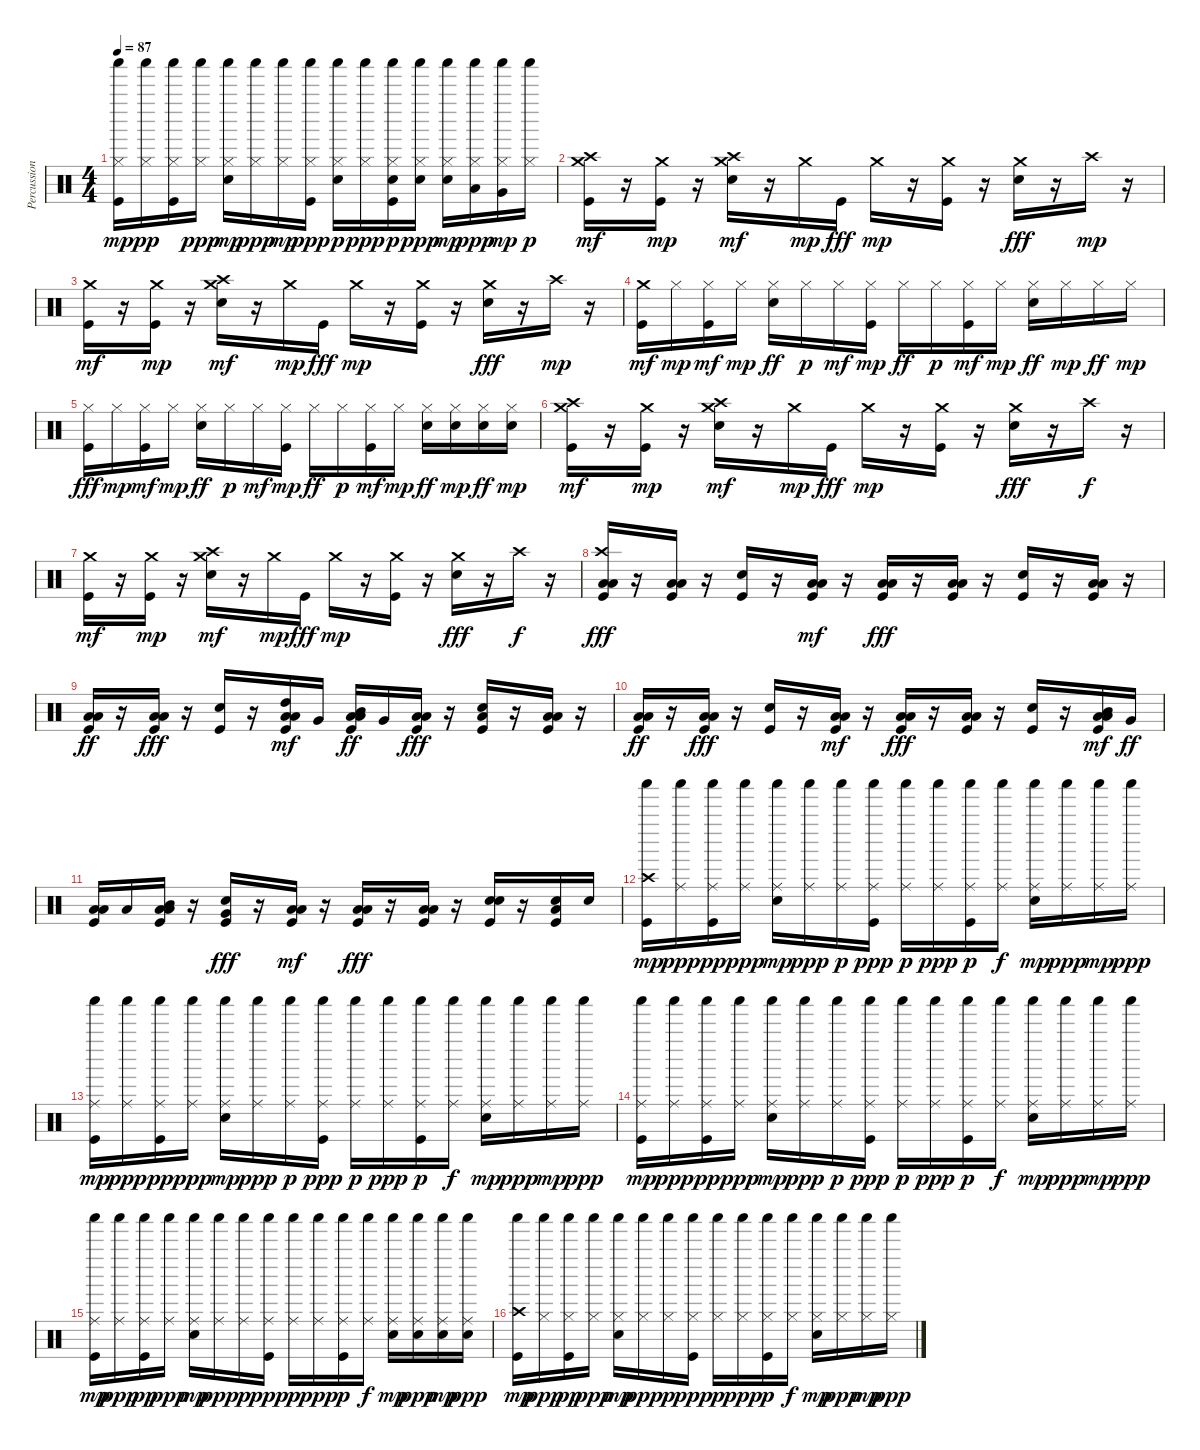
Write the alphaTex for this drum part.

\track ("Percussioni" "Percussion") {instrument percussion}
\staff {score}
\articulation defaults
\ts (4 4)
\tempo 87
\clef neutral
\ks c
("Kick (hit)" "Hi-Hat (closed)" "Shaker (hit)").16{dy mp} ("Hi-Hat (closed)" "Shaker (hit)").16{dy pp} ("Kick (hit)" "Hi-Hat (closed)" "Shaker (hit)").16 ("Hi-Hat (closed)" "Shaker (hit)").16{dy ppp} ("Electric Snare (hit)" "Hi-Hat (closed)" "Shaker (hit)").16{dy mp} ("Hi-Hat (closed)" "Shaker (hit)").16{dy ppp} ("Hi-Hat (closed)" "Shaker (hit)").16{dy mp} ("Kick (hit)" "Hi-Hat (closed)" "Shaker (hit)").16{dy ppp} ("Electric Snare (hit)" "Hi-Hat (closed)" "Shaker (hit)").16{dy p} ("Hi-Hat (closed)" "Shaker (hit)").16{dy ppp} ("Kick (hit)" "Electric Snare (hit)" "Hi-Hat (closed)" "Shaker (hit)").16{dy p} ("Electric Snare (hit)" "Hi-Hat (closed)" "Shaker (hit)").16{dy ppp} ("Electric Snare (hit)" "Hi-Hat (closed)" "Shaker (hit)").16{dy mp} ("Hi-Hat (closed)" "Low Tom (hit)" "Shaker (hit)").16{dy ppp} ("Hi-Hat (closed)" "Very Low Tom (hit)" "Shaker (hit)").16{dy mp} ("Hi-Hat (closed)" "Shaker (hit)").16{dy p} |
("Kick (hit)" "Crash high (hit)" "Crash medium (hit)").16{dy mf} r.16 ("Kick (hit)" "Crash medium (hit)").16{dy mp} r.16 ("Electric Snare (hit)" "Crash high (hit)" "Crash medium (hit)").16{dy mf} r.16 "Crash medium (hit)".16{dy mp} "Kick (hit)".16{dy fff} "Crash medium (hit)".16{dy mp} r.16 ("Kick (hit)" "Crash medium (hit)").16 r.16 ("Electric Snare (hit)" "Crash medium (hit)").16{dy fff} r.16 "Crash high (hit)".16{dy mp} r.16 |
("Kick (hit)" "Crash medium (hit)").16{dy mf} r.16 ("Kick (hit)" "Crash medium (hit)").16{dy mp} r.16 ("Electric Snare (hit)" "Crash high (hit)" "Crash medium (hit)").16{dy mf} r.16 "Crash medium (hit)".16{dy mp} "Kick (hit)".16{dy fff} "Crash medium (hit)".16{dy mp} r.16 ("Kick (hit)" "Crash medium (hit)").16 r.16 ("Electric Snare (hit)" "Crash medium (hit)").16{dy fff} r.16 "Crash high (hit)".16{dy mp} r.16 |
("Kick (hit)" "Crash medium (hit)").16{dy mf} "Hi-Hat (closed)".16{dy mp} ("Kick (hit)" "Hi-Hat (closed)").16{dy mf} "Hi-Hat (closed)".16{dy mp} ("Electric Snare (hit)" "Hi-Hat (closed)").16{dy ff} "Hi-Hat (closed)".16{dy p} "Hi-Hat (closed)".16{dy mf} ("Kick (hit)" "Hi-Hat (closed)").16{dy mp} "Hi-Hat (closed)".16{dy ff} "Hi-Hat (closed)".16{dy p} ("Kick (hit)" "Hi-Hat (closed)").16{dy mf} "Hi-Hat (closed)".16{dy mp} ("Electric Snare (hit)" "Hi-Hat (closed)").16{dy ff} "Hi-Hat (closed)".16{dy mp} "Hi-Hat (closed)".16{dy ff} "Hi-Hat (closed)".16{dy mp} |
("Kick (hit)" "Hi-Hat (closed)").16{dy fff} "Hi-Hat (closed)".16{dy mp} ("Kick (hit)" "Hi-Hat (closed)").16{dy mf} "Hi-Hat (closed)".16{dy mp} ("Electric Snare (hit)" "Hi-Hat (closed)").16{dy ff} "Hi-Hat (closed)".16{dy p} "Hi-Hat (closed)".16{dy mf} ("Kick (hit)" "Hi-Hat (closed)").16{dy mp} "Hi-Hat (closed)".16{dy ff} "Hi-Hat (closed)".16{dy p} ("Kick (hit)" "Hi-Hat (closed)").16{dy mf} "Hi-Hat (closed)".16{dy mp} ("Electric Snare (hit)" "Hi-Hat (closed)").16{dy ff} ("Electric Snare (hit)" "Hi-Hat (closed)").16{dy mp} ("Electric Snare (hit)" "Hi-Hat (closed)").16{dy ff} ("Electric Snare (hit)" "Hi-Hat (closed)").16{dy mp} |
("Kick (hit)" "Crash high (hit)" "Crash medium (hit)").16{dy mf} r.16 ("Kick (hit)" "Crash medium (hit)").16{dy mp} r.16 ("Electric Snare (hit)" "Crash high (hit)" "Crash medium (hit)").16{dy mf} r.16 "Crash medium (hit)".16{dy mp} "Kick (hit)".16{dy fff} "Crash medium (hit)".16{dy mp} r.16 ("Kick (hit)" "Crash medium (hit)").16 r.16 ("Electric Snare (hit)" "Crash medium (hit)").16{dy fff} r.16 "Crash high (hit)".16{dy f} r.16 |
("Kick (hit)" "Crash medium (hit)").16{dy mf} r.16 ("Kick (hit)" "Crash medium (hit)").16{dy mp} r.16 ("Electric Snare (hit)" "Crash high (hit)" "Crash medium (hit)").16{dy mf} r.16 "Crash medium (hit)".16{dy mp} "Kick (hit)".16{dy fff} "Crash medium (hit)".16{dy mp} r.16 ("Kick (hit)" "Crash medium (hit)").16 r.16 ("Electric Snare (hit)" "Crash medium (hit)").16{dy fff} r.16 "Crash high (hit)".16{dy f} r.16 |
("Kick (hit)" "Low Floor Tom (hit)" "Low Tom (hit)" "Crash high (hit)").16{dy fff} r.16 ("Kick (hit)" "Low Floor Tom (hit)" "Low Tom (hit)").16 r.16 ("Kick (hit)" "Electric Snare (hit)").16 r.16 ("Kick (hit)" "Low Floor Tom (hit)" "Low Tom (hit)").16{dy mf} r.16 ("Kick (hit)" "Low Floor Tom (hit)" "Low Tom (hit)").16{dy fff} r.16 ("Kick (hit)" "Low Floor Tom (hit)" "Low Tom (hit)").16 r.16 ("Kick (hit)" "Electric Snare (hit)").16 r.16 ("Kick (hit)" "Low Floor Tom (hit)" "Low Tom (hit)").16 r.16 |
("Kick (hit)" "Low Floor Tom (hit)" "Low Tom (hit)").16{dy ff} r.16 ("Kick (hit)" "Low Floor Tom (hit)" "Low Tom (hit)").16{dy fff} r.16 ("Kick (hit)" "Electric Snare (hit)").16 r.16 ("Kick (hit)" "Low Floor Tom (hit)" "Low Tom (hit)" "High Tom (hit)").16{dy mf} "Very Low Tom (hit)".16 ("Kick (hit)" "Low Floor Tom (hit)" "Low Tom (hit)" "Mid Tom (hit)").16{dy ff} "Very Low Tom (hit)".16 ("Kick (hit)" "Low Floor Tom (hit)" "Low Tom (hit)").16{dy fff} r.16 ("Kick (hit)" "Electric Snare (hit)" "Low Floor Tom (hit)").16 r.16 ("Kick (hit)" "Low Floor Tom (hit)" "Low Tom (hit)").16 r.16 |
("Kick (hit)" "Low Floor Tom (hit)" "Low Tom (hit)").16{dy ff} r.16 ("Kick (hit)" "Low Floor Tom (hit)" "Low Tom (hit)").16{dy fff} r.16 ("Kick (hit)" "Electric Snare (hit)").16 r.16 ("Kick (hit)" "Low Floor Tom (hit)" "Low Tom (hit)").16{dy mf} r.16 ("Kick (hit)" "Low Floor Tom (hit)" "Low Tom (hit)").16{dy fff} r.16 ("Kick (hit)" "Low Floor Tom (hit)" "Low Tom (hit)").16 r.16 ("Kick (hit)" "Electric Snare (hit)").16 r.16 ("Kick (hit)" "Low Floor Tom (hit)" "Low Tom (hit)" "Mid Tom (hit)").16{dy mf} "Very Low Tom (hit)".16{dy ff} |
("Kick (hit)" "Low Floor Tom (hit)" "Low Tom (hit)").16 "Low Floor Tom (hit)".16 ("Kick (hit)" "Low Floor Tom (hit)" "Low Tom (hit)" "Mid Tom (hit)").16 r.16 ("Kick (hit)" "Electric Snare (hit)" "Very Low Tom (hit)").16{dy fff} r.16 ("Kick (hit)" "Low Floor Tom (hit)" "Low Tom (hit)").16{dy mf} r.16 ("Kick (hit)" "Low Floor Tom (hit)" "Low Tom (hit)").16{dy fff} r.16 ("Kick (hit)" "Low Floor Tom (hit)" "Low Tom (hit)").16 r.16 ("Kick (hit)" "Electric Snare (hit)" "Electric Snare (hit)").16 r.16 ("Kick (hit)" "Electric Snare (hit)" "Low Tom (hit)").16 "Electric Snare (hit)".16 |
("Kick (hit)" "Crash high (hit)" "Shaker (hit)").16{dy mp} ("Ride (middle)" "Shaker (hit)").16{dy ppp} ("Kick (hit)" "Ride (middle)" "Shaker (hit)").16{dy pp} ("Ride (middle)" "Shaker (hit)").16{dy ppp} ("Electric Snare (hit)" "Ride (middle)" "Shaker (hit)").16{dy mp} ("Ride (middle)" "Shaker (hit)").16{dy ppp} ("Ride (middle)" "Shaker (hit)").16{dy p} ("Kick (hit)" "Ride (middle)" "Shaker (hit)").16{dy ppp} ("Ride (middle)" "Shaker (hit)").16{dy p} ("Ride (middle)" "Shaker (hit)").16{dy ppp} ("Kick (hit)" "Ride (middle)" "Shaker (hit)").16{dy p} ("Ride (middle)" "Shaker (hit)").16{dy f} ("Electric Snare (hit)" "Ride (middle)" "Shaker (hit)").16{dy mp} ("Ride (middle)" "Shaker (hit)").16{dy ppp} ("Ride (middle)" "Shaker (hit)").16{dy mp} ("Ride (middle)" "Shaker (hit)").16{dy ppp} |
("Kick (hit)" "Ride (middle)" "Shaker (hit)").16{dy mp} ("Ride (middle)" "Shaker (hit)").16{dy ppp} ("Kick (hit)" "Ride (middle)" "Shaker (hit)").16{dy pp} ("Ride (middle)" "Shaker (hit)").16{dy ppp} ("Electric Snare (hit)" "Ride (middle)" "Shaker (hit)").16{dy mp} ("Ride (middle)" "Shaker (hit)").16{dy ppp} ("Ride (middle)" "Shaker (hit)").16{dy p} ("Kick (hit)" "Ride (middle)" "Shaker (hit)").16{dy ppp} ("Ride (middle)" "Shaker (hit)").16{dy p} ("Ride (middle)" "Shaker (hit)").16{dy ppp} ("Kick (hit)" "Ride (middle)" "Shaker (hit)").16{dy p} ("Ride (middle)" "Shaker (hit)").16{dy f} ("Electric Snare (hit)" "Ride (middle)" "Shaker (hit)").16{dy mp} ("Ride (middle)" "Shaker (hit)").16{dy ppp} ("Ride (middle)" "Shaker (hit)").16{dy mp} ("Ride (middle)" "Shaker (hit)").16{dy ppp} |
("Kick (hit)" "Ride (middle)" "Shaker (hit)").16{dy mp} ("Ride (middle)" "Shaker (hit)").16{dy ppp} ("Kick (hit)" "Ride (middle)" "Shaker (hit)").16{dy pp} ("Ride (middle)" "Shaker (hit)").16{dy ppp} ("Electric Snare (hit)" "Ride (middle)" "Shaker (hit)").16{dy mp} ("Ride (middle)" "Shaker (hit)").16{dy ppp} ("Ride (middle)" "Shaker (hit)").16{dy p} ("Kick (hit)" "Ride (middle)" "Shaker (hit)").16{dy ppp} ("Ride (middle)" "Shaker (hit)").16{dy p} ("Ride (middle)" "Shaker (hit)").16{dy ppp} ("Kick (hit)" "Ride (middle)" "Shaker (hit)").16{dy p} ("Ride (middle)" "Shaker (hit)").16{dy f} ("Electric Snare (hit)" "Ride (middle)" "Shaker (hit)").16{dy mp} ("Ride (middle)" "Shaker (hit)").16{dy ppp} ("Ride (middle)" "Shaker (hit)").16{dy mp} ("Ride (middle)" "Shaker (hit)").16{dy ppp} |
("Kick (hit)" "Ride (middle)" "Shaker (hit)").16{dy mp} ("Ride (middle)" "Shaker (hit)").16{dy ppp} ("Kick (hit)" "Ride (middle)" "Shaker (hit)").16{dy pp} ("Ride (middle)" "Shaker (hit)").16{dy ppp} ("Electric Snare (hit)" "Ride (middle)" "Shaker (hit)").16{dy mp} ("Ride (middle)" "Shaker (hit)").16{dy ppp} ("Ride (middle)" "Shaker (hit)").16{dy p} ("Kick (hit)" "Ride (middle)" "Shaker (hit)").16{dy ppp} ("Ride (middle)" "Shaker (hit)").16{dy p} ("Ride (middle)" "Shaker (hit)").16{dy ppp} ("Kick (hit)" "Ride (middle)" "Shaker (hit)").16{dy p} ("Ride (middle)" "Shaker (hit)").16{dy f} ("Electric Snare (hit)" "Ride (middle)" "Shaker (hit)").16{dy mp} ("Electric Snare (hit)" "Ride (middle)" "Shaker (hit)").16{dy ppp} ("Electric Snare (hit)" "Ride (middle)" "Shaker (hit)").16{dy mp} ("Electric Snare (hit)" "Ride (middle)" "Shaker (hit)").16{dy ppp} |
("Kick (hit)" "Crash high (hit)" "Shaker (hit)").16{dy mp} ("Hi-Hat (closed)" "Shaker (hit)").16{dy ppp} ("Kick (hit)" "Hi-Hat (closed)" "Shaker (hit)").16{dy pp} ("Hi-Hat (closed)" "Shaker (hit)").16{dy ppp} ("Electric Snare (hit)" "Hi-Hat (closed)" "Shaker (hit)").16{dy mp} ("Hi-Hat (closed)" "Shaker (hit)").16{dy ppp} ("Hi-Hat (closed)" "Shaker (hit)").16{dy p} ("Kick (hit)" "Hi-Hat (closed)" "Shaker (hit)").16{dy ppp} ("Hi-Hat (closed)" "Shaker (hit)").16{dy p} ("Hi-Hat (closed)" "Shaker (hit)").16{dy ppp} ("Kick (hit)" "Hi-Hat (closed)" "Shaker (hit)").16{dy p} ("Hi-Hat (closed)" "Shaker (hit)").16{dy f} ("Electric Snare (hit)" "Hi-Hat (closed)" "Shaker (hit)").16{dy mp} ("Hi-Hat (closed)" "Shaker (hit)").16{dy ppp} ("Hi-Hat (closed)" "Shaker (hit)").16{dy mp} ("Hi-Hat (closed)" "Shaker (hit)").16{dy ppp}
